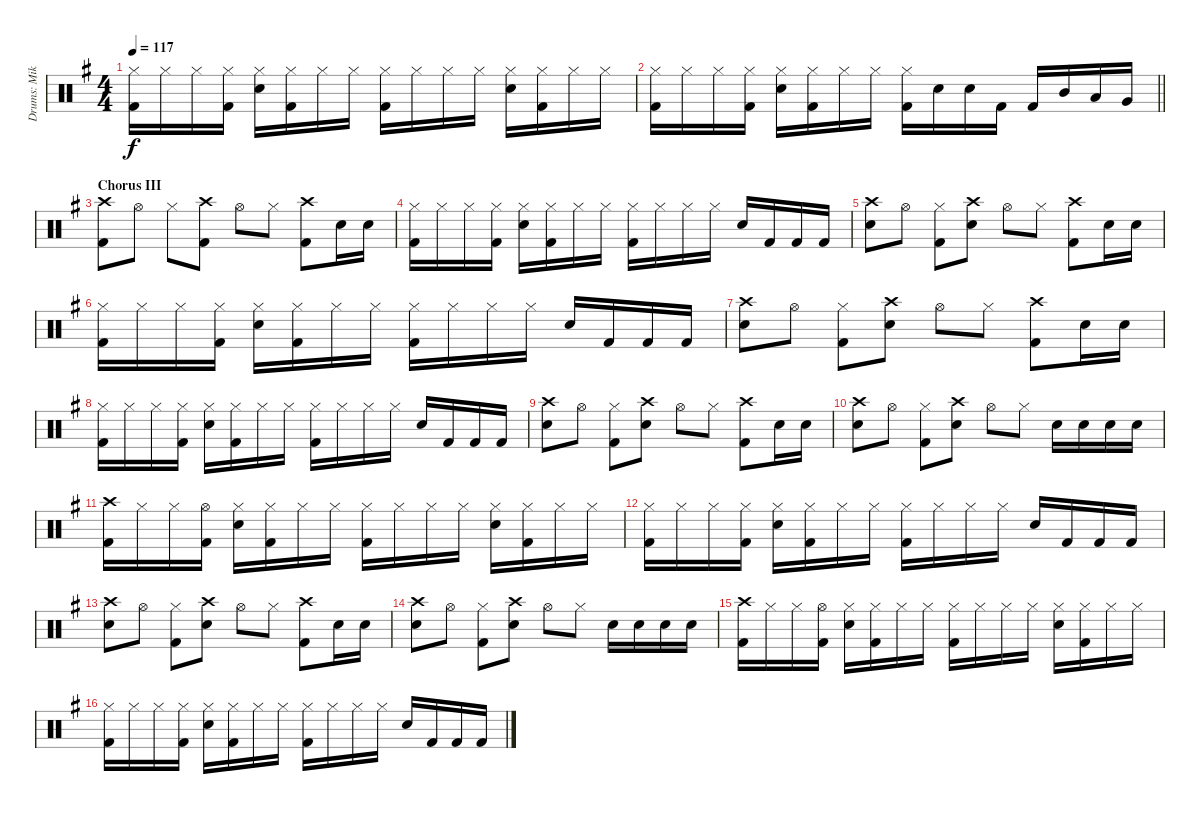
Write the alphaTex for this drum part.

\track ("Drums: Mike" "Drums: Mik") {instrument percussion}
\staff {score}
\articulation defaults
\ts (4 4)
\tempo 117
\clef neutral
\ks g
("Hi-Hat (closed)" "Kick (hit) 2").16{dy f} "Hi-Hat (closed)".16 "Hi-Hat (closed)".16 ("Hi-Hat (closed)" "Kick (hit) 2").16 ("Hi-Hat (closed)" "Electric Snare (hit)").16 ("Hi-Hat (closed)" "Kick (hit) 2").16 "Hi-Hat (closed)".16 "Hi-Hat (closed)".16 ("Hi-Hat (closed)" "Kick (hit) 2").16 "Hi-Hat (closed)".16 "Hi-Hat (closed)".16 "Hi-Hat (closed)".16 ("Hi-Hat (closed)" "Electric Snare (hit)").16 ("Hi-Hat (closed)" "Kick (hit) 2").16 "Hi-Hat (closed)".16 "Hi-Hat (closed)".16 |
\barLineRight lightlight
("Hi-Hat (closed)" "Kick (hit) 2").16 "Hi-Hat (closed)".16 "Hi-Hat (closed)".16 ("Hi-Hat (closed)" "Kick (hit) 2").16 ("Hi-Hat (closed)" "Electric Snare (hit)").16 ("Hi-Hat (closed)" "Kick (hit) 2").16 "Hi-Hat (closed)".16 "Hi-Hat (closed)".16 ("Hi-Hat (closed)" "Kick (hit) 2").16 "Electric Snare (hit)".16 "Electric Snare (hit)".16 "Kick (hit) 2".16 "Kick (hit) 2".16 "Mid Tom (hit)".16 "Low Tom (hit)".16 "Very Low Tom (hit)".16 |
\section ("" "Chorus III")
("Crash high (hit)" "Kick (hit) 2").8 "Hi-Hat (open)".8 "Hi-Hat (closed)".8 ("Crash high (hit)" "Kick (hit) 2").8 "Hi-Hat (open)".8 "Hi-Hat (closed)".8 ("Crash high (hit)" "Kick (hit) 2").8 "Electric Snare (hit)".16 "Electric Snare (hit)".16 |
("Hi-Hat (closed)" "Kick (hit) 2").16 "Hi-Hat (closed)".16 "Hi-Hat (closed)".16 ("Hi-Hat (closed)" "Kick (hit) 2").16 ("Hi-Hat (closed)" "Electric Snare (hit)").16 ("Hi-Hat (closed)" "Kick (hit) 2").16 "Hi-Hat (closed)".16 "Hi-Hat (closed)".16 ("Hi-Hat (closed)" "Kick (hit) 2").16 "Hi-Hat (closed)".16 "Hi-Hat (closed)".16 "Hi-Hat (closed)".16 "Electric Snare (hit)".16 "Kick (hit) 2".16 "Kick (hit) 2".16 "Kick (hit) 2".16 |
("Crash high (hit)" "Electric Snare (hit)").8 "Hi-Hat (open)".8 ("Hi-Hat (closed)" "Kick (hit) 2").8 ("Crash high (hit)" "Electric Snare (hit)").8 "Hi-Hat (open)".8 "Hi-Hat (closed)".8 ("Crash high (hit)" "Kick (hit) 2").8 "Electric Snare (hit)".16 "Electric Snare (hit)".16 |
("Hi-Hat (closed)" "Kick (hit) 2").16 "Hi-Hat (closed)".16 "Hi-Hat (closed)".16 ("Hi-Hat (closed)" "Kick (hit) 2").16 ("Hi-Hat (closed)" "Electric Snare (hit)").16 ("Hi-Hat (closed)" "Kick (hit) 2").16 "Hi-Hat (closed)".16 "Hi-Hat (closed)".16 ("Hi-Hat (closed)" "Kick (hit) 2").16 "Hi-Hat (closed)".16 "Hi-Hat (closed)".16 "Hi-Hat (closed)".16 "Electric Snare (hit)".16 "Kick (hit) 2".16 "Kick (hit) 2".16 "Kick (hit) 2".16 |
("Crash high (hit)" "Electric Snare (hit)").8 "Hi-Hat (open)".8 ("Hi-Hat (closed)" "Kick (hit) 2").8 ("Crash high (hit)" "Electric Snare (hit)").8 "Hi-Hat (open)".8 "Hi-Hat (closed)".8 ("Crash high (hit)" "Kick (hit) 2").8 "Electric Snare (hit)".16 "Electric Snare (hit)".16 |
("Hi-Hat (closed)" "Kick (hit) 2").16 "Hi-Hat (closed)".16 "Hi-Hat (closed)".16 ("Hi-Hat (closed)" "Kick (hit) 2").16 ("Hi-Hat (closed)" "Electric Snare (hit)").16 ("Hi-Hat (closed)" "Kick (hit) 2").16 "Hi-Hat (closed)".16 "Hi-Hat (closed)".16 ("Hi-Hat (closed)" "Kick (hit) 2").16 "Hi-Hat (closed)".16 "Hi-Hat (closed)".16 "Hi-Hat (closed)".16 "Electric Snare (hit)".16 "Kick (hit) 2".16 "Kick (hit) 2".16 "Kick (hit) 2".16 |
("Crash high (hit)" "Electric Snare (hit)").8 "Hi-Hat (open)".8 ("Hi-Hat (closed)" "Kick (hit) 2").8 ("Crash high (hit)" "Electric Snare (hit)").8 "Hi-Hat (open)".8 "Hi-Hat (closed)".8 ("Crash high (hit)" "Kick (hit) 2").8 "Electric Snare (hit)".16 "Electric Snare (hit)".16 |
("Crash high (hit)" "Electric Snare (hit)").8 "Hi-Hat (open)".8 ("Hi-Hat (closed)" "Kick (hit) 2").8 ("Crash high (hit)" "Electric Snare (hit)").8 "Hi-Hat (open)".8 "Hi-Hat (closed)".8 "Electric Snare (hit)".16 "Electric Snare (hit)".16 "Electric Snare (hit)".16 "Electric Snare (hit)".16 |
("Crash high (hit)" "Kick (hit) 2").16 "Hi-Hat (closed)".16 "Hi-Hat (closed)".16 ("Hi-Hat (open)" "Kick (hit) 2").16 ("Hi-Hat (closed)" "Electric Snare (hit)").16 ("Hi-Hat (closed)" "Kick (hit) 2").16 "Hi-Hat (closed)".16 "Hi-Hat (closed)".16 ("Hi-Hat (closed)" "Kick (hit) 2").16 "Hi-Hat (closed)".16 "Hi-Hat (closed)".16 "Hi-Hat (closed)".16 ("Hi-Hat (closed)" "Electric Snare (hit)").16 ("Hi-Hat (closed)" "Kick (hit) 2").16 "Hi-Hat (closed)".16 "Hi-Hat (closed)".16 |
("Hi-Hat (closed)" "Kick (hit) 2").16 "Hi-Hat (closed)".16 "Hi-Hat (closed)".16 ("Hi-Hat (closed)" "Kick (hit) 2").16 ("Hi-Hat (closed)" "Electric Snare (hit)").16 ("Hi-Hat (closed)" "Kick (hit) 2").16 "Hi-Hat (closed)".16 "Hi-Hat (closed)".16 ("Hi-Hat (closed)" "Kick (hit) 2").16 "Hi-Hat (closed)".16 "Hi-Hat (closed)".16 "Hi-Hat (closed)".16 "Electric Snare (hit)".16 "Kick (hit) 2".16 "Kick (hit) 2".16 "Kick (hit) 2".16 |
("Crash high (hit)" "Electric Snare (hit)").8 "Hi-Hat (open)".8 ("Hi-Hat (closed)" "Kick (hit) 2").8 ("Crash high (hit)" "Electric Snare (hit)").8 "Hi-Hat (open)".8 "Hi-Hat (closed)".8 ("Crash high (hit)" "Kick (hit) 2").8 "Electric Snare (hit)".16 "Electric Snare (hit)".16 |
("Crash high (hit)" "Electric Snare (hit)").8 "Hi-Hat (open)".8 ("Hi-Hat (closed)" "Kick (hit) 2").8 ("Crash high (hit)" "Electric Snare (hit)").8 "Hi-Hat (open)".8 "Hi-Hat (closed)".8 "Electric Snare (hit)".16 "Electric Snare (hit)".16 "Electric Snare (hit)".16 "Electric Snare (hit)".16 |
("Crash high (hit)" "Kick (hit) 2").16 "Hi-Hat (closed)".16 "Hi-Hat (closed)".16 ("Hi-Hat (open)" "Kick (hit) 2").16 ("Hi-Hat (closed)" "Electric Snare (hit)").16 ("Hi-Hat (closed)" "Kick (hit) 2").16 "Hi-Hat (closed)".16 "Hi-Hat (closed)".16 ("Hi-Hat (closed)" "Kick (hit) 2").16 "Hi-Hat (closed)".16 "Hi-Hat (closed)".16 "Hi-Hat (closed)".16 ("Hi-Hat (closed)" "Electric Snare (hit)").16 ("Hi-Hat (closed)" "Kick (hit) 2").16 "Hi-Hat (closed)".16 "Hi-Hat (closed)".16 |
("Hi-Hat (closed)" "Kick (hit) 2").16 "Hi-Hat (closed)".16 "Hi-Hat (closed)".16 ("Hi-Hat (closed)" "Kick (hit) 2").16 ("Hi-Hat (closed)" "Electric Snare (hit)").16 ("Hi-Hat (closed)" "Kick (hit) 2").16 "Hi-Hat (closed)".16 "Hi-Hat (closed)".16 ("Hi-Hat (closed)" "Kick (hit) 2").16 "Hi-Hat (closed)".16 "Hi-Hat (closed)".16 "Hi-Hat (closed)".16 "Electric Snare (hit)".16 "Kick (hit) 2".16 "Kick (hit) 2".16 "Kick (hit) 2".16
